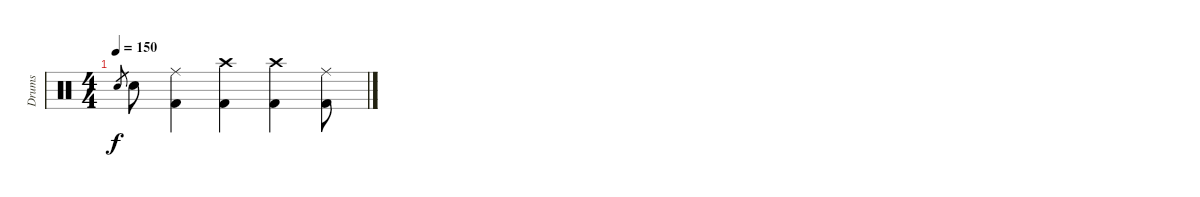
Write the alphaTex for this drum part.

\track ("Drums" "Drums") {instrument percussion}
\staff {score}
\articulation defaults
\ts (4 4)
\tempo 150
\clef neutral
\ks c "Electric Snare (hit)".8{gr dy f} "Electric Snare (hit)".8
("Ride (middle)" "Kick (hit) 2").4 ("Crash high (hit)" "Kick (hit) 2").4 ("Crash high (hit)" "Kick (hit) 2").4 ("Ride (middle)" "Kick (hit) 2").8
